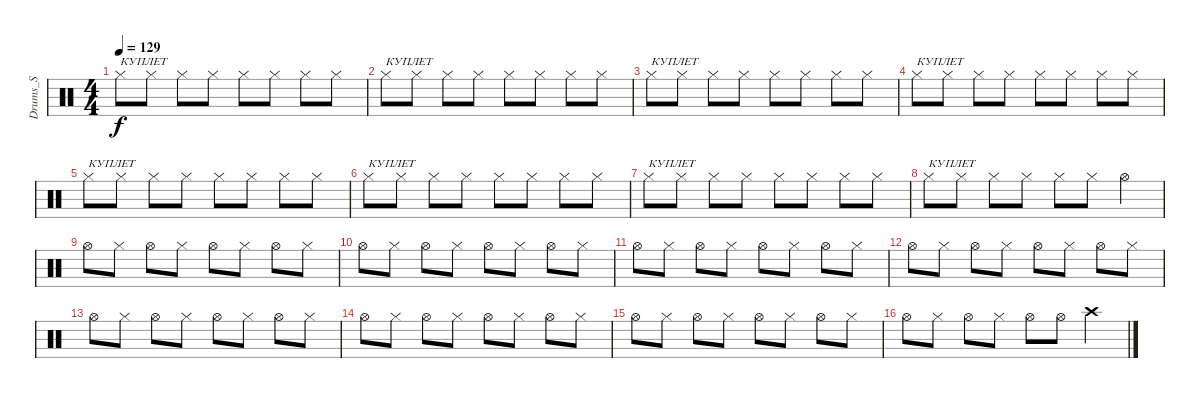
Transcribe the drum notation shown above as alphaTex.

\track ("Drums_S" "Drums_S") {instrument percussion}
\staff {score}
\articulation defaults
\ts (4 4)
\tempo 129
\clef neutral
\ks c "Hi-Hat (closed)".8{txt "КУПЛЕТ" dy f} "Hi-Hat (closed)".8 "Hi-Hat (closed)".8 "Hi-Hat (closed)".8 "Hi-Hat (closed)".8 "Hi-Hat (closed)".8 "Hi-Hat (closed)".8 "Hi-Hat (closed)".8
|
"Hi-Hat (closed)".8{txt "КУПЛЕТ"} "Hi-Hat (closed)".8 "Hi-Hat (closed)".8 "Hi-Hat (closed)".8 "Hi-Hat (closed)".8 "Hi-Hat (closed)".8 "Hi-Hat (closed)".8 "Hi-Hat (closed)".8 |
"Hi-Hat (closed)".8{txt "КУПЛЕТ"} "Hi-Hat (closed)".8 "Hi-Hat (closed)".8 "Hi-Hat (closed)".8 "Hi-Hat (closed)".8 "Hi-Hat (closed)".8 "Hi-Hat (closed)".8 "Hi-Hat (closed)".8 |
"Hi-Hat (closed)".8{txt "КУПЛЕТ"} "Hi-Hat (closed)".8 "Hi-Hat (closed)".8 "Hi-Hat (closed)".8 "Hi-Hat (closed)".8 "Hi-Hat (closed)".8 "Hi-Hat (closed)".8 "Hi-Hat (closed)".8 |
"Hi-Hat (closed)".8{txt "КУПЛЕТ"} "Hi-Hat (closed)".8 "Hi-Hat (closed)".8 "Hi-Hat (closed)".8 "Hi-Hat (closed)".8 "Hi-Hat (closed)".8 "Hi-Hat (closed)".8 "Hi-Hat (closed)".8 |
"Hi-Hat (closed)".8{txt "КУПЛЕТ"} "Hi-Hat (closed)".8 "Hi-Hat (closed)".8 "Hi-Hat (closed)".8 "Hi-Hat (closed)".8 "Hi-Hat (closed)".8 "Hi-Hat (closed)".8 "Hi-Hat (closed)".8 |
"Hi-Hat (closed)".8{txt "КУПЛЕТ"} "Hi-Hat (closed)".8 "Hi-Hat (closed)".8 "Hi-Hat (closed)".8 "Hi-Hat (closed)".8 "Hi-Hat (closed)".8 "Hi-Hat (closed)".8 "Hi-Hat (closed)".8 |
"Hi-Hat (closed)".8{txt "КУПЛЕТ"} "Hi-Hat (closed)".8 "Hi-Hat (closed)".8 "Hi-Hat (closed)".8 "Hi-Hat (closed)".8 "Hi-Hat (closed)".8 "Hi-Hat (open)".4 |
"Hi-Hat (open)".8 "Hi-Hat (closed)".8 "Hi-Hat (open)".8 "Hi-Hat (closed)".8 "Hi-Hat (open)".8 "Hi-Hat (closed)".8 "Hi-Hat (open)".8 "Hi-Hat (closed)".8 |
"Hi-Hat (open)".8 "Hi-Hat (closed)".8 "Hi-Hat (open)".8 "Hi-Hat (closed)".8 "Hi-Hat (open)".8 "Hi-Hat (closed)".8 "Hi-Hat (open)".8 "Hi-Hat (closed)".8 |
"Hi-Hat (open)".8 "Hi-Hat (closed)".8 "Hi-Hat (open)".8 "Hi-Hat (closed)".8 "Hi-Hat (open)".8 "Hi-Hat (closed)".8 "Hi-Hat (open)".8 "Hi-Hat (closed)".8 |
"Hi-Hat (open)".8 "Hi-Hat (closed)".8 "Hi-Hat (open)".8 "Hi-Hat (closed)".8 "Hi-Hat (open)".8 "Hi-Hat (closed)".8 "Hi-Hat (open)".8 "Hi-Hat (closed)".8 |
"Hi-Hat (open)".8 "Hi-Hat (closed)".8 "Hi-Hat (open)".8 "Hi-Hat (closed)".8 "Hi-Hat (open)".8 "Hi-Hat (closed)".8 "Hi-Hat (open)".8 "Hi-Hat (closed)".8 |
"Hi-Hat (open)".8 "Hi-Hat (closed)".8 "Hi-Hat (open)".8 "Hi-Hat (closed)".8 "Hi-Hat (open)".8 "Hi-Hat (closed)".8 "Hi-Hat (open)".8 "Hi-Hat (closed)".8 |
"Hi-Hat (open)".8 "Hi-Hat (closed)".8 "Hi-Hat (open)".8 "Hi-Hat (closed)".8 "Hi-Hat (open)".8 "Hi-Hat (closed)".8 "Hi-Hat (open)".8 "Hi-Hat (closed)".8 |
"Hi-Hat (open)".8 "Hi-Hat (closed)".8 "Hi-Hat (open)".8 "Hi-Hat (closed)".8 "Hi-Hat (open)".8 "Hi-Hat (open)".8 "Crash high (hit)".4
